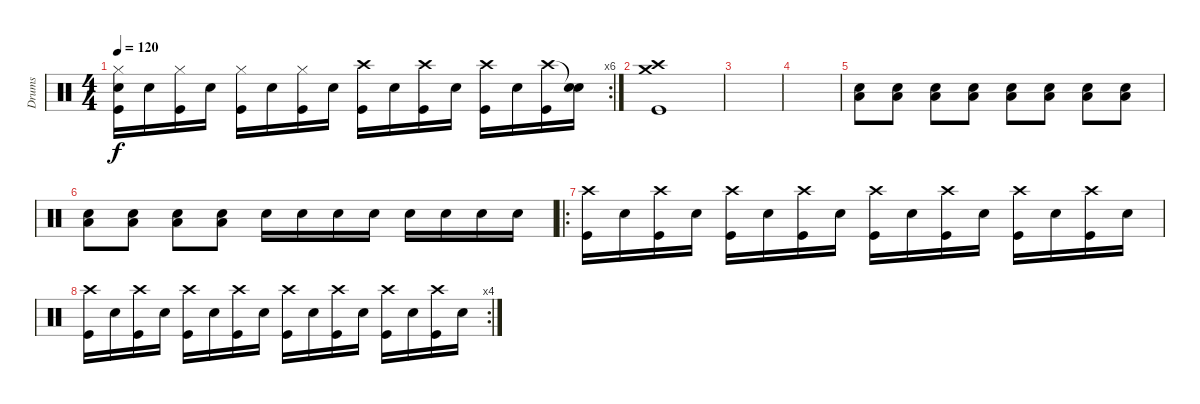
\track ("Drums" "Drums") {instrument percussion}
\staff {score}
\articulation defaults
\rc 6
\ts (4 4)
\tempo 120
\clef neutral
\ks c
("Hi-Hat (closed)" "Snare (hit)"{t} "Kick (hit)").16{dy f} "Electric Snare (hit)".16 ("Hi-Hat (closed)" "Kick (hit)").16 "Electric Snare (hit)".16 ("Hi-Hat (closed)" "Kick (hit)").16 "Electric Snare (hit)".16 ("Hi-Hat (closed)" "Kick (hit)").16 "Electric Snare (hit)".16 ("Crash high (hit)" "Kick (hit)").16 "Electric Snare (hit)".16 ("Crash high (hit)" "Kick (hit)").16 "Electric Snare (hit)".16 ("Crash high (hit)" "Kick (hit)").16 "Electric Snare (hit)".16 ("Crash high (hit)" "Kick (hit)").16 ("Snare (hit)"{t} "Electric Snare (hit)").16 |
("Crash high (hit)" "Crash medium (hit)" "Kick (hit)").1 |
|
|
("Electric Snare (hit)" "Low Floor Tom (hit)").8 ("Electric Snare (hit)" "Low Floor Tom (hit)").8 ("Electric Snare (hit)" "Low Floor Tom (hit)").8 ("Electric Snare (hit)" "Low Floor Tom (hit)").8 ("Electric Snare (hit)" "Low Floor Tom (hit)").8 ("Electric Snare (hit)" "Low Floor Tom (hit)").8 ("Electric Snare (hit)" "Low Floor Tom (hit)").8 ("Electric Snare (hit)" "Low Floor Tom (hit)").8 |
("Electric Snare (hit)" "Low Floor Tom (hit)").8 ("Electric Snare (hit)" "Low Floor Tom (hit)").8 ("Electric Snare (hit)" "Low Floor Tom (hit)").8 ("Electric Snare (hit)" "Low Floor Tom (hit)").8 "Electric Snare (hit)".16 "Electric Snare (hit)".16 "Electric Snare (hit)".16 "Electric Snare (hit)".16 "Electric Snare (hit)".16 "Electric Snare (hit)".16 "Electric Snare (hit)".16 "Electric Snare (hit)".16 |
\ro
("Crash high (hit)" "Kick (hit)").16 "Electric Snare (hit)".16 ("Crash high (hit)" "Kick (hit)").16 "Electric Snare (hit)".16 ("Crash high (hit)" "Kick (hit)").16 "Electric Snare (hit)".16 ("Crash high (hit)" "Kick (hit)").16 "Electric Snare (hit)".16 ("Crash high (hit)" "Kick (hit)").16 "Electric Snare (hit)".16 ("Crash high (hit)" "Kick (hit)").16 "Electric Snare (hit)".16 ("Crash high (hit)" "Kick (hit)").16 "Electric Snare (hit)".16 ("Crash high (hit)" "Kick (hit)").16 "Electric Snare (hit)".16 |
\rc 4
("Crash high (hit)" "Kick (hit)").16 "Electric Snare (hit)".16 ("Crash high (hit)" "Kick (hit)").16 "Electric Snare (hit)".16 ("Crash high (hit)" "Kick (hit)").16 "Electric Snare (hit)".16 ("Crash high (hit)" "Kick (hit)").16 "Electric Snare (hit)".16 ("Crash high (hit)" "Kick (hit)").16 "Electric Snare (hit)".16 ("Crash high (hit)" "Kick (hit)").16 "Electric Snare (hit)".16 ("Crash high (hit)" "Kick (hit)").16 "Electric Snare (hit)".16 ("Crash high (hit)" "Kick (hit)").16 "Electric Snare (hit)".16
